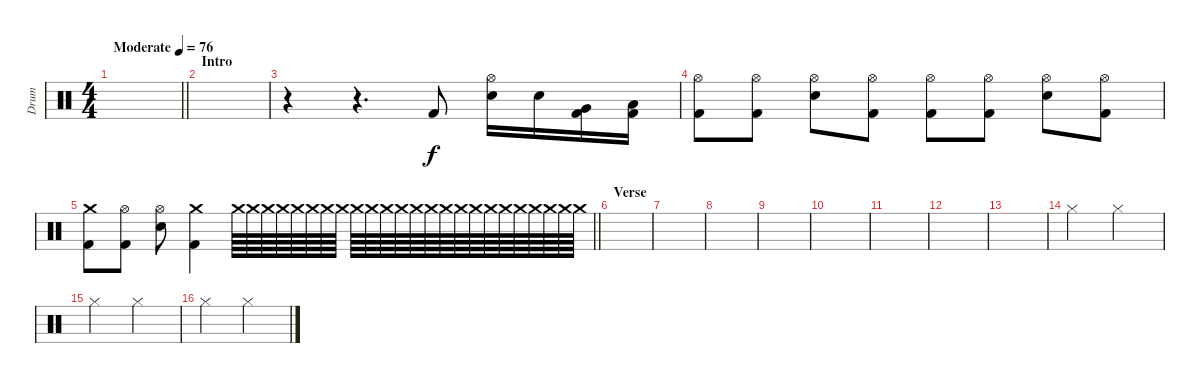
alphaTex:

\track ("Drum" "Drum") {instrument percussion}
\staff {score}
\articulation defaults
\ts (4 4)
\tempo (76 "Moderate")
\clef neutral
\barLineRight lightlight
\ks c
|
\section ("" "Intro")
|
r.4 r.4{d} "Kick (hit) 2".8 ("Hi-Hat (open)" "Electric Snare (hit)").16 "Electric Snare (hit)".16 ("Very Low Tom (hit)" "Kick (hit) 2").16 ("Low Floor Tom (hit)" "Kick (hit) 2").16 |
("Hi-Hat (open)" "Kick (hit) 2").8 ("Hi-Hat (open)" "Kick (hit) 2").8 ("Hi-Hat (open)" "Electric Snare (hit)").8 ("Hi-Hat (open)" "Kick (hit) 2").8 ("Hi-Hat (open)" "Kick (hit) 2").8 ("Hi-Hat (open)" "Kick (hit) 2").8 ("Hi-Hat (open)" "Electric Snare (hit)").8 ("Hi-Hat (open)" "Kick (hit) 2").8 |
\barLineRight lightlight
("Crash medium (hit)" "Kick (hit) 2").8 ("Hi-Hat (open)" "Kick (hit) 2").8 ("Hi-Hat (open)" "Electric Snare (hit)").8 ("Crash medium (hit)" "Kick (hit) 2").4 "Crash medium (hit)".64{volume 3} "Crash medium (hit)".64 "Crash medium (hit)".64 "Crash medium (hit)".64 "Crash medium (hit)".64 "Crash medium (hit)".64 "Crash medium (hit)".64 "Crash medium (hit)".64 "Crash medium (hit)".64 "Crash medium (hit)".64 "Crash medium (hit)".64 "Crash medium (hit)".64 "Crash medium (hit)".64 "Crash medium (hit)".64 "Crash medium (hit)".64 "Crash medium (hit)".64 "Crash medium (hit)".64 "Crash medium (hit)".64 "Crash medium (hit)".64 "Crash medium (hit)".64 "Crash medium (hit)".64 "Crash medium (hit)".64 "Crash medium (hit)".64 "Crash medium (hit)".64 |
\section ("" "Verse")
|
|
|
|
|
|
|
|
"Hi-Hat (closed)".2 "Hi-Hat (closed)".2 |
"Hi-Hat (closed)".2 "Hi-Hat (closed)".2 |
"Hi-Hat (closed)".2 "Hi-Hat (closed)".2
